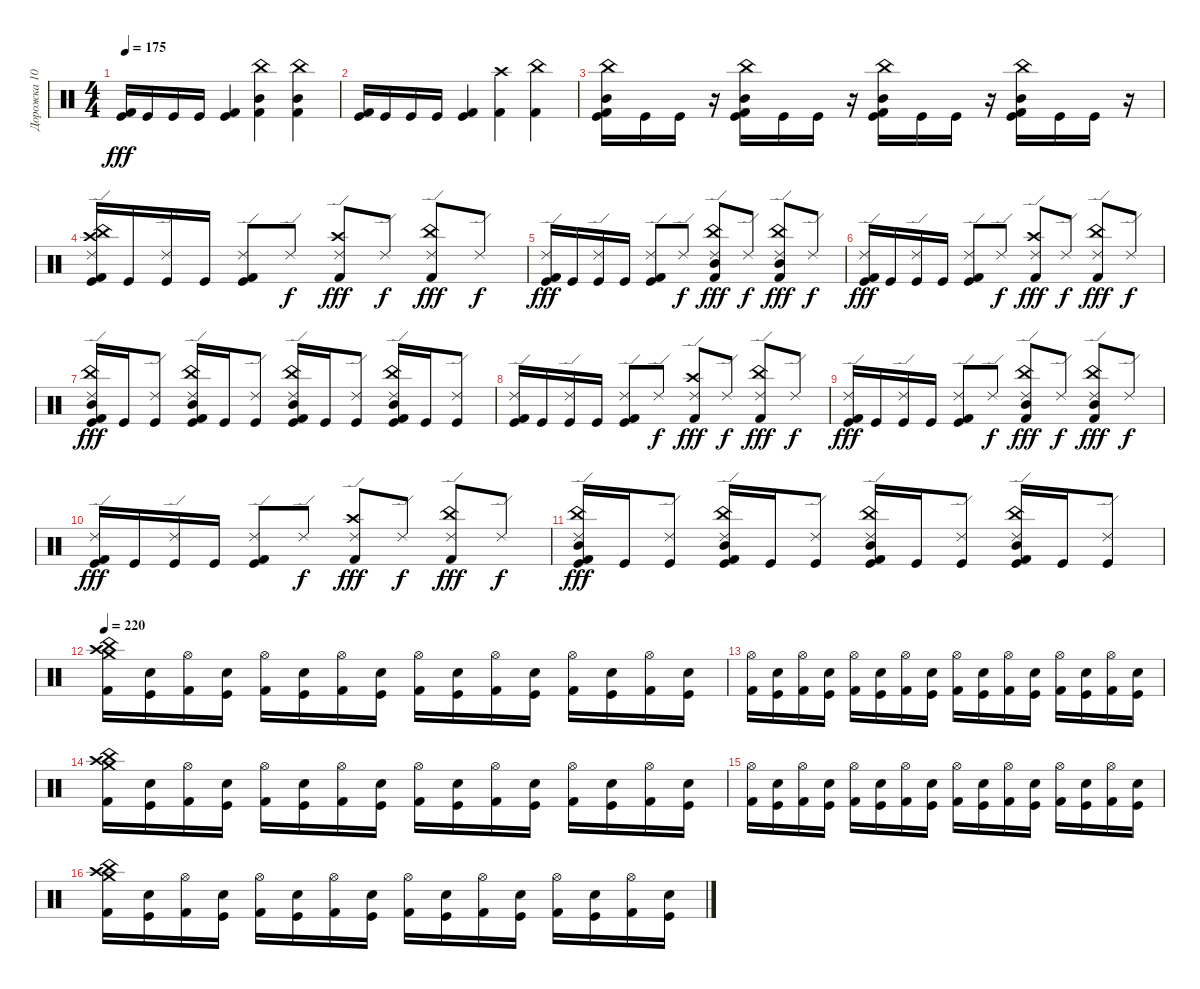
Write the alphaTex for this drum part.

\track ("Дорожка 10" "Дорожка 10") {instrument percussion}
\staff {score}
\articulation defaults
\ts (4 4)
\tempo 175
\clef neutral
\ks c
("Kick (hit) 2" "Kick (hit)").16{dy fff} "Kick (hit)".16 "Kick (hit)".16 "Kick (hit)".16 ("Kick (hit)" "Kick (hit) 2").4 ("Kick (hit) 2" "Mid Tom (hit)" "China (hit)").4 ("Kick (hit) 2" "China (hit)" "Mid Tom (hit)").4 |
("Kick (hit)" "Kick (hit) 2").16 "Kick (hit)".16 "Kick (hit)".16 "Kick (hit)".16 ("Kick (hit) 2" "Kick (hit)").4 ("Kick (hit) 2" "Crash high (hit)").4 ("Kick (hit) 2" "China (hit)").4 |
("Kick (hit)" "Kick (hit) 2" "China (hit)" "Mid Tom (hit)").16 "Kick (hit)".16 "Kick (hit)".16 r.16 ("Kick (hit)" "Mid Tom (hit)" "China (hit)" "Kick (hit) 2").16 "Kick (hit)".16 "Kick (hit)".16 r.16 ("Mid Tom (hit)" "China (hit)" "Kick (hit) 2" "Kick (hit)").16 "Kick (hit)".16 "Kick (hit)".16 r.16 ("China (hit)" "Mid Tom (hit)" "Kick (hit)" "Kick (hit) 2").16 "Kick (hit)".16 "Kick (hit)".16 r.16 |
("Kick (hit)" "Crash high (hit)" "China (hit)" "Kick (hit) 2" "Ride (edge) 2").16 "Kick (hit)".16 ("Ride (edge) 2" "Kick (hit)").16 "Kick (hit)".16 ("Kick (hit)" "Kick (hit) 2" "Ride (edge) 2").8 "Ride (edge) 2".8{dy f} ("Kick (hit) 2" "Ride (edge) 2" "Crash high (hit)").8{dy fff} "Ride (edge) 2".8{dy f} ("China (hit)" "Kick (hit) 2" "Ride (edge) 2").8{dy fff} "Ride (edge) 2".8{dy f} |
("Ride (edge) 2" "Kick (hit)" "Kick (hit) 2").16{dy fff} "Kick (hit)".16 ("Kick (hit)" "Ride (edge) 2").16 "Kick (hit)".16 ("Ride (edge) 2" "Kick (hit) 2" "Kick (hit)").8 "Ride (edge) 2".8{dy f} ("Kick (hit) 2" "Ride (edge) 2" "China (hit)" "Mid Tom (hit)").8{dy fff} "Ride (edge) 2".8{dy f} ("Mid Tom (hit)" "Kick (hit) 2" "China (hit)" "Ride (edge) 2").8{dy fff} "Ride (edge) 2".8{dy f} |
("Ride (edge) 2" "Kick (hit)" "Kick (hit) 2").16{dy fff} "Kick (hit)".16 ("Ride (edge) 2" "Kick (hit)").16 "Kick (hit)".16 ("Kick (hit) 2" "Ride (edge) 2" "Kick (hit)").8 "Ride (edge) 2".8{dy f} ("Ride (edge) 2" "Kick (hit) 2" "Crash high (hit)").8{dy fff} "Ride (edge) 2".8{dy f} ("Ride (edge) 2" "Kick (hit) 2" "China (hit)").8{dy fff} "Ride (edge) 2".8{dy f} |
("Ride (edge) 2" "Kick (hit)" "Mid Tom (hit)" "China (hit)" "Kick (hit) 2").16{dy fff} "Kick (hit)".16 ("Kick (hit)" "Ride (edge) 2").8 ("Mid Tom (hit)" "Kick (hit) 2" "China (hit)" "Ride (edge) 2" "Kick (hit)").16 "Kick (hit)".16 ("Ride (edge) 2" "Kick (hit)").8 ("Kick (hit)" "China (hit)" "Mid Tom (hit)" "Ride (edge) 2" "Kick (hit) 2").16 "Kick (hit)".16 ("Kick (hit)" "Ride (edge) 2").8 ("China (hit)" "Ride (edge) 2" "Mid Tom (hit)" "Kick (hit)" "Kick (hit) 2").16 "Kick (hit)".16 ("Kick (hit)" "Ride (edge) 2").8 |
("Kick (hit) 2" "Kick (hit)" "Ride (edge) 2").16 "Kick (hit)".16 ("Ride (edge) 2" "Kick (hit)").16 "Kick (hit)".16 ("Ride (edge) 2" "Kick (hit) 2" "Kick (hit)").8 "Ride (edge) 2".8{dy f} ("Kick (hit) 2" "Crash high (hit)" "Ride (edge) 2").8{dy fff} "Ride (edge) 2".8{dy f} ("Kick (hit) 2" "China (hit)" "Ride (edge) 2").8{dy fff} "Ride (edge) 2".8{dy f} |
("Kick (hit)" "Ride (edge) 2" "Kick (hit) 2").16{dy fff} "Kick (hit)".16 ("Ride (edge) 2" "Kick (hit)").16 "Kick (hit)".16 ("Kick (hit) 2" "Ride (edge) 2" "Kick (hit)").8 "Ride (edge) 2".8{dy f} ("China (hit)" "Kick (hit) 2" "Mid Tom (hit)" "Ride (edge) 2").8{dy fff} "Ride (edge) 2".8{dy f} ("China (hit)" "Ride (edge) 2" "Mid Tom (hit)" "Kick (hit) 2").8{dy fff} "Ride (edge) 2".8{dy f} |
("Kick (hit)" "Ride (edge) 2" "Kick (hit) 2").16{dy fff} "Kick (hit)".16 ("Kick (hit)" "Ride (edge) 2").16 "Kick (hit)".16 ("Kick (hit) 2" "Kick (hit)" "Ride (edge) 2").8 "Ride (edge) 2".8{dy f} ("Kick (hit) 2" "Ride (edge) 2" "Crash high (hit)").8{dy fff} "Ride (edge) 2".8{dy f} ("Kick (hit) 2" "Ride (edge) 2" "China (hit)").8{dy fff} "Ride (edge) 2".8{dy f} |
("Ride (edge) 2" "Kick (hit)" "Kick (hit) 2" "China (hit)" "Mid Tom (hit)").16{dy fff} "Kick (hit)".16 ("Ride (edge) 2" "Kick (hit)").8 ("Kick (hit) 2" "Ride (edge) 2" "Mid Tom (hit)" "Kick (hit)" "China (hit)").16 "Kick (hit)".16 ("Kick (hit)" "Ride (edge) 2").8 ("Mid Tom (hit)" "Kick (hit)" "Kick (hit) 2" "Ride (edge) 2" "China (hit)").16 "Kick (hit)".16 ("Ride (edge) 2" "Kick (hit)").8 ("Mid Tom (hit)" "Kick (hit)" "Ride (edge) 2" "China (hit)" "Kick (hit) 2").16 "Kick (hit)".16 ("Kick (hit)" "Ride (edge) 2").8 |
\tempo 220
("Kick (hit) 2" "Crash high (hit)" "China (hit)" "Crash medium (hit)").16 ("Kick (hit)" "Snare (hit) 2").16 ("Kick (hit) 2" "Hi-Hat (open)").16 ("Kick (hit)" "Snare (hit) 2").16 ("Kick (hit) 2" "Hi-Hat (open)").16 ("Snare (hit) 2" "Kick (hit)").16 ("Hi-Hat (open)" "Kick (hit) 2").16 ("Snare (hit) 2" "Kick (hit)").16 ("Kick (hit) 2" "Hi-Hat (open)").16 ("Snare (hit) 2" "Kick (hit)").16 ("Hi-Hat (open)" "Kick (hit) 2").16 ("Snare (hit) 2" "Kick (hit)").16 ("Kick (hit) 2" "Hi-Hat (open)").16 ("Kick (hit)" "Snare (hit) 2").16 ("Hi-Hat (open)" "Kick (hit) 2").16 ("Kick (hit)" "Snare (hit) 2").16 |
("Kick (hit) 2" "Hi-Hat (open)").16 ("Kick (hit)" "Snare (hit) 2").16 ("Hi-Hat (open)" "Kick (hit) 2").16 ("Snare (hit) 2" "Kick (hit)").16 ("Hi-Hat (open)" "Kick (hit) 2").16 ("Kick (hit)" "Snare (hit) 2").16 ("Hi-Hat (open)" "Kick (hit) 2").16 ("Snare (hit) 2" "Kick (hit)").16 ("Kick (hit) 2" "Hi-Hat (open)").16 ("Snare (hit) 2" "Kick (hit)").16 ("Hi-Hat (open)" "Kick (hit) 2").16 ("Snare (hit) 2" "Kick (hit)").16 ("Hi-Hat (open)" "Kick (hit) 2").16 ("Kick (hit)" "Snare (hit) 2").16 ("Hi-Hat (open)" "Kick (hit) 2").16 ("Kick (hit)" "Snare (hit) 2").16 |
("Crash medium (hit)" "Crash high (hit)" "Kick (hit) 2" "China (hit)").16 ("Kick (hit)" "Snare (hit) 2").16 ("Kick (hit) 2" "Hi-Hat (open)").16 ("Kick (hit)" "Snare (hit) 2").16 ("Kick (hit) 2" "Hi-Hat (open)").16 ("Snare (hit) 2" "Kick (hit)").16 ("Kick (hit) 2" "Hi-Hat (open)").16 ("Kick (hit)" "Snare (hit) 2").16 ("Hi-Hat (open)" "Kick (hit) 2").16 ("Snare (hit) 2" "Kick (hit)").16 ("Hi-Hat (open)" "Kick (hit) 2").16 ("Kick (hit)" "Snare (hit) 2").16 ("Kick (hit) 2" "Hi-Hat (open)").16 ("Snare (hit) 2" "Kick (hit)").16 ("Hi-Hat (open)" "Kick (hit) 2").16 ("Kick (hit)" "Snare (hit) 2").16 |
("Kick (hit) 2" "Hi-Hat (open)").16 ("Kick (hit)" "Snare (hit) 2").16 ("Hi-Hat (open)" "Kick (hit) 2").16 ("Snare (hit) 2" "Kick (hit)").16 ("Hi-Hat (open)" "Kick (hit) 2").16 ("Kick (hit)" "Snare (hit) 2").16 ("Kick (hit) 2" "Hi-Hat (open)").16 ("Kick (hit)" "Snare (hit) 2").16 ("Hi-Hat (open)" "Kick (hit) 2").16 ("Kick (hit)" "Snare (hit) 2").16 ("Hi-Hat (open)" "Kick (hit) 2").16 ("Snare (hit) 2" "Kick (hit)").16 ("Hi-Hat (open)" "Kick (hit) 2").16 ("Kick (hit)" "Snare (hit) 2").16 ("Hi-Hat (open)" "Kick (hit) 2").16 ("Snare (hit) 2" "Kick (hit)").16 |
("China (hit)" "Crash high (hit)" "Crash medium (hit)" "Kick (hit) 2").16 ("Kick (hit)" "Snare (hit) 2").16 ("Kick (hit) 2" "Hi-Hat (open)").16 ("Kick (hit)" "Snare (hit) 2").16 ("Kick (hit) 2" "Hi-Hat (open)").16 ("Kick (hit)" "Snare (hit) 2").16 ("Hi-Hat (open)" "Kick (hit) 2").16 ("Snare (hit) 2" "Kick (hit)").16 ("Kick (hit) 2" "Hi-Hat (open)").16 ("Snare (hit) 2" "Kick (hit)").16 ("Hi-Hat (open)" "Kick (hit) 2").16 ("Kick (hit)" "Snare (hit) 2").16 ("Kick (hit) 2" "Hi-Hat (open)").16 ("Snare (hit) 2" "Kick (hit)").16 ("Hi-Hat (open)" "Kick (hit) 2").16 ("Kick (hit)" "Snare (hit) 2").16
